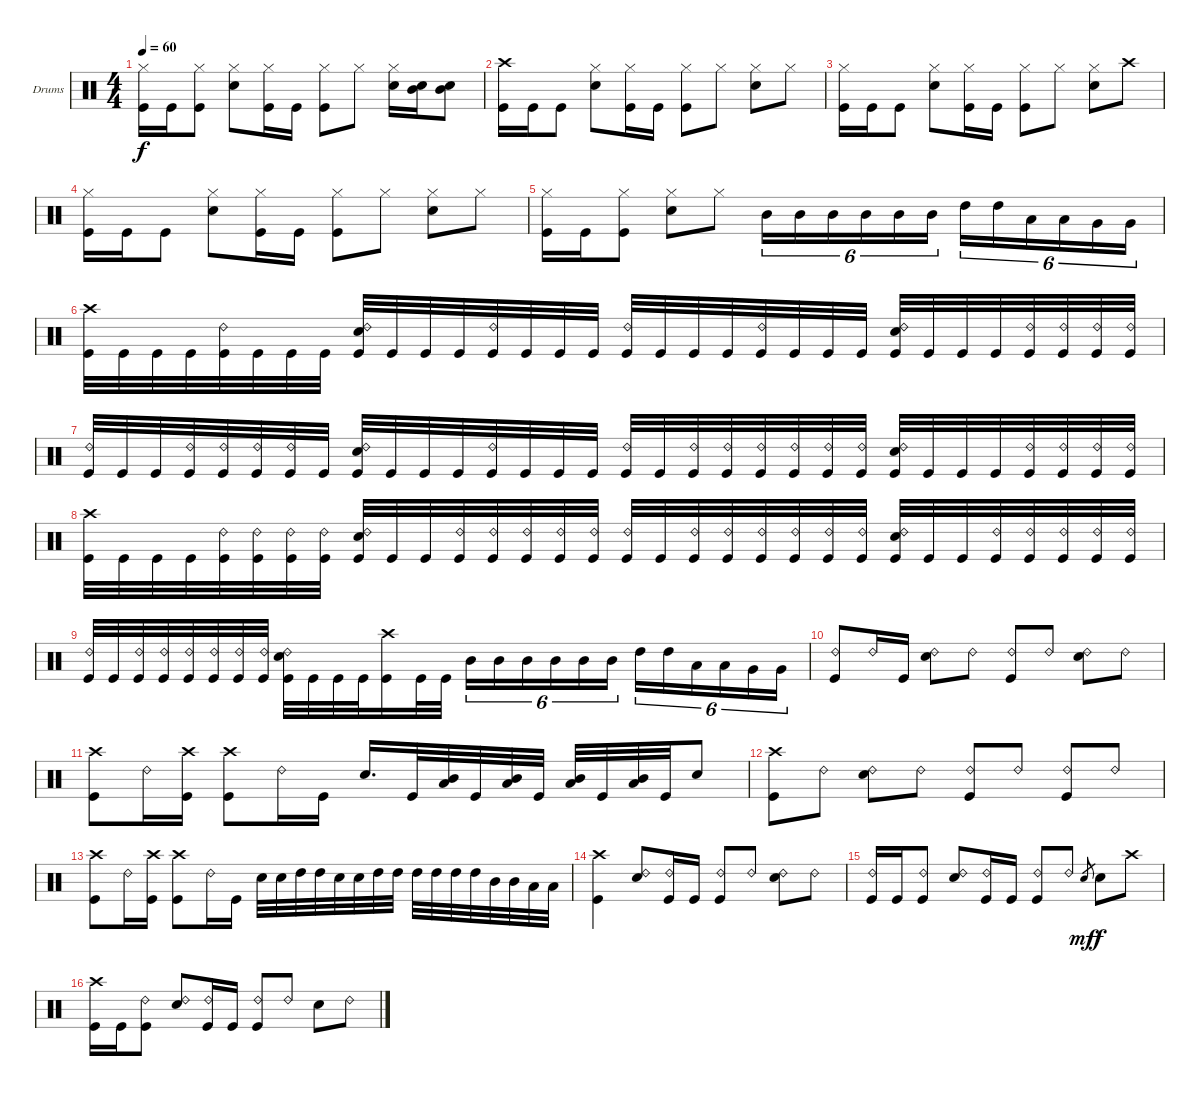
\bracketExtendMode groupsimilarinstruments
\firstSystemTrackNameOrientation horizontal
\otherSystemsTrackNameOrientation horizontal
\track ("Drumkit" "Drums") {instrument percussion}
\staff {score}
\articulation defaults
\ts (4 4)
\tempo 60
\clef neutral
\ks c
("Hi-Hat (closed)" "Kick (hit)").16{dy f} "Kick (hit)".16 ("Hi-Hat (closed)" "Kick (hit)").8 ("Hi-Hat (closed)" "Snare (hit) 2").8 ("Hi-Hat (closed)" "Kick (hit)").16 "Kick (hit)".16 ("Hi-Hat (closed)" "Kick (hit)").8 "Hi-Hat (closed)".8 ("Hi-Hat (closed)" "Snare (hit) 2").16 ("Mid Tom (hit)" "Snare (hit) 2").16 ("Mid Tom (hit)" "Snare (hit) 2").8 |
("Crash high (hit)" "Kick (hit)").16 "Kick (hit)".16 "Kick (hit)".8 ("Hi-Hat (closed)" "Snare (hit) 2").8 ("Hi-Hat (closed)" "Kick (hit)").16 "Kick (hit)".16 ("Hi-Hat (closed)" "Kick (hit)").8 "Hi-Hat (closed)".8 ("Hi-Hat (closed)" "Snare (hit) 2").8 "Hi-Hat (closed)".8 |
("Hi-Hat (closed)" "Kick (hit)").16 "Kick (hit)".16 "Kick (hit)".8 ("Hi-Hat (closed)" "Snare (hit) 2").8 ("Hi-Hat (closed)" "Kick (hit)").16 "Kick (hit)".16 ("Hi-Hat (closed)" "Kick (hit)").8 "Hi-Hat (closed)".8 ("Hi-Hat (closed)" "Snare (hit) 2").8 "Crash high (hit)".8 |
("Hi-Hat (closed)" "Kick (hit)").16 "Kick (hit)".16 "Kick (hit)".8 ("Hi-Hat (closed)" "Snare (hit) 2").8 ("Hi-Hat (closed)" "Kick (hit)").16 "Kick (hit)".16 ("Hi-Hat (closed)" "Kick (hit)").8 "Hi-Hat (closed)".8 ("Hi-Hat (closed)" "Snare (hit) 2").8 "Hi-Hat (closed)".8 |
("Hi-Hat (closed)" "Kick (hit)").16 "Kick (hit)".16 ("Hi-Hat (closed)" "Kick (hit)").8 ("Hi-Hat (closed)" "Snare (hit) 2").8 "Hi-Hat (closed)".8 "Mid Tom (hit)".16{tu (6 4)} "Mid Tom (hit)".16{tu (6 4)} "Mid Tom (hit)".16{tu (6 4)} "Mid Tom (hit)".16{tu (6 4)} "Mid Tom (hit)".16{tu (6 4)} "Mid Tom (hit)".16{tu (6 4)} "High Tom (hit)".16{tu (6 4)} "High Tom (hit)".16{tu (6 4)} "Low Tom (hit)".16{tu (6 4)} "Low Tom (hit)".16{tu (6 4)} "Very Low Tom (hit)".16{tu (6 4)} "Very Low Tom (hit)".16{tu (6 4)} |
("Crash high (hit)" "Kick (hit)").32 "Kick (hit)".32 "Kick (hit)".32 "Kick (hit)".32 ("Ride (bell) 2" "Kick (hit)").32 "Kick (hit)".32 "Kick (hit)".32 "Kick (hit)".32 ("Ride (bell) 2" "Snare (hit) 2" "Kick (hit)").32 "Kick (hit)".32 "Kick (hit)".32 "Kick (hit)".32 ("Ride (bell) 2" "Kick (hit)").32 "Kick (hit)".32 "Kick (hit)".32 "Kick (hit)".32 ("Ride (bell) 2" "Kick (hit)").32 "Kick (hit)".32 "Kick (hit)".32 "Kick (hit)".32 ("Ride (bell) 2" "Kick (hit)").32 "Kick (hit)".32 "Kick (hit)".32 "Kick (hit)".32 ("Ride (bell) 2" "Snare (hit) 2" "Kick (hit)").32 "Kick (hit)".32 "Kick (hit)".32 "Kick (hit)".32 ("Ride (bell) 2" "Kick (hit)").32 ("Ride (bell) 2" "Kick (hit)").32 ("Ride (bell) 2" "Kick (hit)").32 ("Ride (bell) 2" "Kick (hit)").32 |
("Ride (bell) 2" "Kick (hit)").32 "Kick (hit)".32 "Kick (hit)".32 ("Ride (bell) 2" "Kick (hit)").32 ("Ride (bell) 2" "Kick (hit)").32 ("Ride (bell) 2" "Kick (hit)").32 ("Ride (bell) 2" "Kick (hit)").32 "Kick (hit)".32 ("Ride (bell) 2" "Snare (hit) 2" "Kick (hit)").32 "Kick (hit)".32 "Kick (hit)".32 "Kick (hit)".32 ("Ride (bell) 2" "Kick (hit)").32 "Kick (hit)".32 "Kick (hit)".32 "Kick (hit)".32 ("Ride (bell) 2" "Kick (hit)").32 "Kick (hit)".32 ("Ride (bell) 2" "Kick (hit)").32 ("Ride (bell) 2" "Kick (hit)").32 ("Ride (bell) 2" "Kick (hit)").32 ("Ride (bell) 2" "Kick (hit)").32 ("Ride (bell) 2" "Kick (hit)").32 ("Ride (bell) 2" "Kick (hit)").32 ("Ride (bell) 2" "Snare (hit) 2" "Kick (hit)").32 "Kick (hit)".32 "Kick (hit)".32 "Kick (hit)".32 ("Ride (bell) 2" "Kick (hit)").32 ("Ride (bell) 2" "Kick (hit)").32 ("Ride (bell) 2" "Kick (hit)").32 ("Ride (bell) 2" "Kick (hit)").32 |
("Crash high (hit)" "Kick (hit)").32 "Kick (hit)".32 "Kick (hit)".32 "Kick (hit)".32 ("Ride (bell) 2" "Kick (hit)").32 ("Ride (bell) 2" "Kick (hit)").32 ("Ride (bell) 2" "Kick (hit)").32 ("Ride (bell) 2" "Kick (hit)").32 ("Ride (bell) 2" "Snare (hit) 2" "Kick (hit)").32 "Kick (hit)".32 "Kick (hit)".32 ("Ride (bell) 2" "Kick (hit)").32 ("Ride (bell) 2" "Kick (hit)").32 ("Ride (bell) 2" "Kick (hit)").32 ("Ride (bell) 2" "Kick (hit)").32 ("Ride (bell) 2" "Kick (hit)").32 ("Ride (bell) 2" "Kick (hit)").32 "Kick (hit)".32 ("Ride (bell) 2" "Kick (hit)").32 ("Ride (bell) 2" "Kick (hit)").32 ("Ride (bell) 2" "Kick (hit)").32 ("Ride (bell) 2" "Kick (hit)").32 ("Ride (bell) 2" "Kick (hit)").32 ("Ride (bell) 2" "Kick (hit)").32 ("Ride (bell) 2" "Snare (hit) 2" "Kick (hit)").32 "Kick (hit)".32 "Kick (hit)".32 ("Ride (bell) 2" "Kick (hit)").32 ("Ride (bell) 2" "Kick (hit)").32 ("Ride (bell) 2" "Kick (hit)").32 ("Ride (bell) 2" "Kick (hit)").32 ("Ride (bell) 2" "Kick (hit)").32 |
("Ride (bell) 2" "Kick (hit)").32 "Kick (hit)".32 ("Ride (bell) 2" "Kick (hit)").32 ("Ride (bell) 2" "Kick (hit)").32 ("Ride (bell) 2" "Kick (hit)").32 ("Ride (bell) 2" "Kick (hit)").32 ("Ride (bell) 2" "Kick (hit)").32 ("Ride (bell) 2" "Kick (hit)").32 ("Ride (bell) 2" "Snare (hit) 2" "Kick (hit)").32 "Kick (hit)".32 "Kick (hit)".32 "Kick (hit)".32 ("Crash high (hit)" "Kick (hit)").16 "Kick (hit)".32 "Kick (hit)".32 "Mid Tom (hit)".16{tu (6 4)} "Mid Tom (hit)".16{tu (6 4)} "Mid Tom (hit)".16{tu (6 4)} "Mid Tom (hit)".16{tu (6 4)} "Mid Tom (hit)".16{tu (6 4)} "Mid Tom (hit)".16{tu (6 4)} "High Tom (hit)".16{tu (6 4)} "High Tom (hit)".16{tu (6 4)} "Low Tom (hit)".16{tu (6 4)} "Low Tom (hit)".16{tu (6 4)} "Very Low Tom (hit)".16{tu (6 4)} "Very Low Tom (hit)".16{tu (6 4)} |
("Ride (bell) 2" "Kick (hit)").8 "Ride (bell) 2".16 "Kick (hit)".16 ("Ride (bell) 2" "Snare (hit) 2").8 "Ride (bell) 2".8 ("Ride (bell) 2" "Kick (hit)").8 "Ride (bell) 2".8 ("Ride (bell) 2" "Snare (hit) 2").8 "Ride (bell) 2".8 |
("Crash high (hit)" "Kick (hit)").8 "Ride (bell) 2".16 ("Crash high (hit)" "Kick (hit)").16 ("Crash high (hit)" "Kick (hit)").8 "Ride (bell) 2".16 "Kick (hit)".16 "Snare (hit) 2".16{d} "Kick (hit)".32 ("Mid Tom (hit)" "Low Tom (hit)").32 "Kick (hit)".32 ("Mid Tom (hit)" "Low Tom (hit)").32 "Kick (hit)".32 ("Mid Tom (hit)" "Low Tom (hit)").32 "Kick (hit)".32 ("Mid Tom (hit)" "Low Tom (hit)").32 "Kick (hit)".32 "Snare (hit) 2".8 |
("Crash high (hit)" "Kick (hit)").8 "Ride (bell) 2".8 ("Ride (bell) 2" "Snare (hit) 2").8 "Ride (bell) 2".8 ("Ride (bell) 2" "Kick (hit)").8 "Ride (bell) 2".8 ("Ride (bell) 2" "Kick (hit)").8 "Ride (bell) 2".8 |
("Crash high (hit)" "Kick (hit)").8 "Ride (bell) 2".16 ("Crash high (hit)" "Kick (hit)").16 ("Crash high (hit)" "Kick (hit)").8 "Ride (bell) 2".16 "Kick (hit)".16 "Snare (hit) 2".32 "Snare (hit) 2".32 "High Tom (hit)".32 "High Tom (hit)".32 "Snare (hit) 2".32 "Snare (hit) 2".32 "High Tom (hit)".32 "High Tom (hit)".32 "High Tom (hit)".32 "High Tom (hit)".32 "High Tom (hit)".32 "High Tom (hit)".32 "Mid Tom (hit)".32 "Mid Tom (hit)".32 "Low Tom (hit)".32 "Low Tom (hit)".32 |
("Crash high (hit)" "Kick (hit)").4 ("Ride (bell) 2" "Snare (hit) 2").8 ("Ride (bell) 2" "Kick (hit)").16 "Kick (hit)".16 ("Ride (bell) 2" "Kick (hit)").8 "Ride (bell) 2".8 ("Ride (bell) 2" "Snare (hit) 2").8 "Ride (bell) 2".8 |
("Ride (bell) 2" "Kick (hit)").16 "Kick (hit)".16 ("Ride (bell) 2" "Kick (hit)").8 ("Ride (bell) 2" "Snare (hit) 2").8 ("Ride (bell) 2" "Kick (hit)").16 "Kick (hit)".16 ("Ride (bell) 2" "Kick (hit)").8 "Ride (bell) 2".8 "Snare (hit) 2".8{gr dy mf} "Snare (hit) 2".8{dy f} "Crash high (hit)".8 |
("Crash high (hit)" "Kick (hit)").16 "Kick (hit)".16 ("Ride (bell) 2" "Kick (hit)").8 ("Ride (bell) 2" "Snare (hit) 2").8 ("Ride (bell) 2" "Kick (hit)").16 "Kick (hit)".16 ("Ride (bell) 2" "Kick (hit)").8 "Ride (bell) 2".8 "Snare (hit) 2".8 "Ride (bell) 2".8
